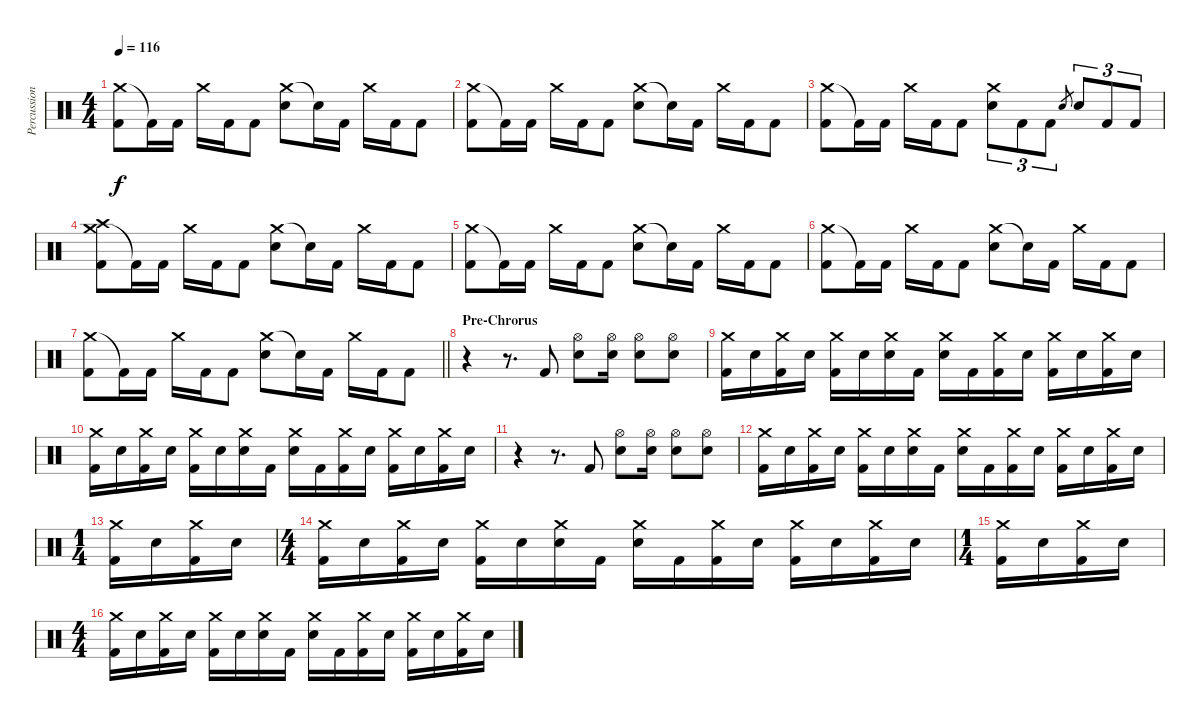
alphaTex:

\track ("Percussion" "Percussion") {instrument percussion}
\staff {score}
\articulation defaults
\ts (4 4)
\tempo 116
\clef neutral
\ks c
("Crash medium (hit)" "Kick (hit) 2").8{dy f} "Kick (hit) 2"{t}.16 "Kick (hit) 2".16 "Crash medium (hit)".16 "Kick (hit) 2".16 "Kick (hit) 2".8 ("Crash medium (hit)" "Electric Snare (hit)").8 "Electric Snare (hit)"{t}.16 "Kick (hit) 2".16 "Crash medium (hit)".16 "Kick (hit) 2".16 "Kick (hit) 2".8 |
("Crash medium (hit)" "Kick (hit) 2").8 "Kick (hit) 2"{t}.16 "Kick (hit) 2".16 "Crash medium (hit)".16 "Kick (hit) 2".16 "Kick (hit) 2".8 ("Crash medium (hit)" "Electric Snare (hit)").8 "Electric Snare (hit)"{t}.16 "Kick (hit) 2".16 "Crash medium (hit)".16 "Kick (hit) 2".16 "Kick (hit) 2".8 |
("Crash medium (hit)" "Kick (hit) 2").8 "Kick (hit) 2"{t}.16 "Kick (hit) 2".16 "Crash medium (hit)".16 "Kick (hit) 2".16 "Kick (hit) 2".8 ("Crash medium (hit)" "Electric Snare (hit)").8{tu (3 2)} "Kick (hit) 2".8{tu (3 2)} "Kick (hit) 2".8{tu (3 2)} "Electric Snare (hit)".8{gr} "Electric Snare (hit)".8{tu (3 2)} "Kick (hit) 2".8{tu (3 2)} "Kick (hit) 2".8{tu (3 2)} |
("Crash medium (hit)" "Crash high (hit)" "Kick (hit) 2").8 "Kick (hit) 2"{t}.16 "Kick (hit) 2".16 "Crash medium (hit)".16 "Kick (hit) 2".16 "Kick (hit) 2".8 ("Crash medium (hit)" "Electric Snare (hit)").8 "Electric Snare (hit)"{t}.16 "Kick (hit) 2".16 "Crash medium (hit)".16 "Kick (hit) 2".16 "Kick (hit) 2".8 |
("Crash medium (hit)" "Kick (hit) 2").8 "Kick (hit) 2"{t}.16 "Kick (hit) 2".16 "Crash medium (hit)".16 "Kick (hit) 2".16 "Kick (hit) 2".8 ("Crash medium (hit)" "Electric Snare (hit)").8 "Electric Snare (hit)"{t}.16 "Kick (hit) 2".16 "Crash medium (hit)".16 "Kick (hit) 2".16 "Kick (hit) 2".8 |
("Crash medium (hit)" "Kick (hit) 2").8 "Kick (hit) 2"{t}.16 "Kick (hit) 2".16 "Crash medium (hit)".16 "Kick (hit) 2".16 "Kick (hit) 2".8 ("Crash medium (hit)" "Electric Snare (hit)").8 "Electric Snare (hit)"{t}.16 "Kick (hit) 2".16 "Crash medium (hit)".16 "Kick (hit) 2".16 "Kick (hit) 2".8 |
\barLineRight lightlight
("Crash medium (hit)" "Kick (hit) 2").8 "Kick (hit) 2"{t}.16 "Kick (hit) 2".16 "Crash medium (hit)".16 "Kick (hit) 2".16 "Kick (hit) 2".8 ("Crash medium (hit)" "Electric Snare (hit)").8 "Electric Snare (hit)"{t}.16 "Kick (hit) 2".16 "Crash medium (hit)".16 "Kick (hit) 2".16 "Kick (hit) 2".8 |
\section ("" "Pre-Chrorus")
r.4 r.8{d} "Kick (hit) 2".8 ("Hi-Hat (open)" "Electric Snare (hit)").8 ("Hi-Hat (open)" "Electric Snare (hit)").16 ("Hi-Hat (open)" "Electric Snare (hit)").8 ("Hi-Hat (open)" "Electric Snare (hit)").8 |
("Crash medium (hit)" "Kick (hit) 2").16 "Electric Snare (hit)".16 ("Crash medium (hit)" "Kick (hit) 2").16 "Electric Snare (hit)".16 ("Crash medium (hit)" "Kick (hit) 2").16 "Electric Snare (hit)".16 ("Crash medium (hit)" "Electric Snare (hit)").16 "Kick (hit) 2".16 ("Crash medium (hit)" "Electric Snare (hit)").16 "Kick (hit) 2".16 ("Crash medium (hit)" "Kick (hit) 2").16 "Electric Snare (hit)".16 ("Crash medium (hit)" "Kick (hit) 2").16 "Electric Snare (hit)".16 ("Crash medium (hit)" "Kick (hit) 2").16 "Electric Snare (hit)".16 |
("Crash medium (hit)" "Kick (hit) 2").16 "Electric Snare (hit)".16 ("Crash medium (hit)" "Kick (hit) 2").16 "Electric Snare (hit)".16 ("Crash medium (hit)" "Kick (hit) 2").16 "Electric Snare (hit)".16 ("Crash medium (hit)" "Electric Snare (hit)").16 "Kick (hit) 2".16 ("Crash medium (hit)" "Electric Snare (hit)").16 "Kick (hit) 2".16 ("Crash medium (hit)" "Kick (hit) 2").16 "Electric Snare (hit)".16 ("Crash medium (hit)" "Kick (hit) 2").16 "Electric Snare (hit)".16 ("Crash medium (hit)" "Kick (hit) 2").16 "Electric Snare (hit)".16 |
r.4 r.8{d} "Kick (hit) 2".8 ("Hi-Hat (open)" "Electric Snare (hit)").8 ("Hi-Hat (open)" "Electric Snare (hit)").16 ("Hi-Hat (open)" "Electric Snare (hit)").8 ("Hi-Hat (open)" "Electric Snare (hit)").8 |
("Crash medium (hit)" "Kick (hit) 2").16 "Electric Snare (hit)".16 ("Crash medium (hit)" "Kick (hit) 2").16 "Electric Snare (hit)".16 ("Crash medium (hit)" "Kick (hit) 2").16 "Electric Snare (hit)".16 ("Crash medium (hit)" "Electric Snare (hit)").16 "Kick (hit) 2".16 ("Crash medium (hit)" "Electric Snare (hit)").16 "Kick (hit) 2".16 ("Crash medium (hit)" "Kick (hit) 2").16 "Electric Snare (hit)".16 ("Crash medium (hit)" "Kick (hit) 2").16 "Electric Snare (hit)".16 ("Crash medium (hit)" "Kick (hit) 2").16 "Electric Snare (hit)".16 |
\ts (1 4)
("Crash medium (hit)" "Kick (hit) 2").16 "Electric Snare (hit)".16 ("Crash medium (hit)" "Kick (hit) 2").16 "Electric Snare (hit)".16 |
\ts (4 4)
("Crash medium (hit)" "Kick (hit) 2").16 "Electric Snare (hit)".16 ("Crash medium (hit)" "Kick (hit) 2").16 "Electric Snare (hit)".16 ("Crash medium (hit)" "Kick (hit) 2").16 "Electric Snare (hit)".16 ("Crash medium (hit)" "Electric Snare (hit)").16 "Kick (hit) 2".16 ("Crash medium (hit)" "Electric Snare (hit)").16 "Kick (hit) 2".16 ("Crash medium (hit)" "Kick (hit) 2").16 "Electric Snare (hit)".16 ("Crash medium (hit)" "Kick (hit) 2").16 "Electric Snare (hit)".16 ("Crash medium (hit)" "Kick (hit) 2").16 "Electric Snare (hit)".16 |
\ts (1 4)
("Crash medium (hit)" "Kick (hit) 2").16 "Electric Snare (hit)".16 ("Crash medium (hit)" "Kick (hit) 2").16 "Electric Snare (hit)".16 |
\ts (4 4)
("Crash medium (hit)" "Kick (hit) 2").16 "Electric Snare (hit)".16 ("Crash medium (hit)" "Kick (hit) 2").16 "Electric Snare (hit)".16 ("Crash medium (hit)" "Kick (hit) 2").16 "Electric Snare (hit)".16 ("Crash medium (hit)" "Electric Snare (hit)").16 "Kick (hit) 2".16 ("Crash medium (hit)" "Electric Snare (hit)").16 "Kick (hit) 2".16 ("Crash medium (hit)" "Kick (hit) 2").16 "Electric Snare (hit)".16 ("Crash medium (hit)" "Kick (hit) 2").16 "Electric Snare (hit)".16 ("Crash medium (hit)" "Kick (hit) 2").16 "Electric Snare (hit)".16
